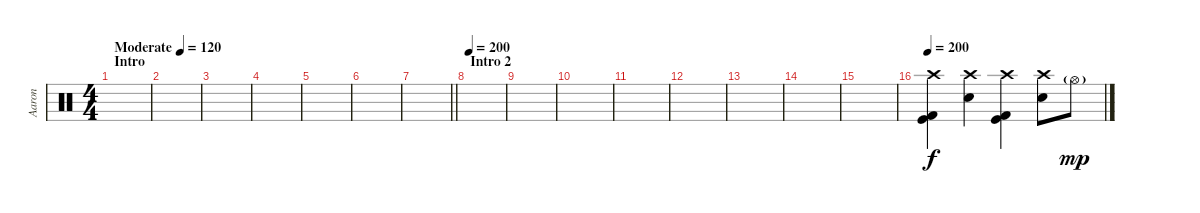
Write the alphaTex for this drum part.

\track ("Aaron" "Aaron") {instrument percussion}
\staff {score}
\articulation defaults
\ts (4 4)
\section ("" "Intro")
\tempo (120 "Moderate")
\clef neutral
\ks c
|
|
|
|
|
|
\barLineRight lightlight
|
\section ("" "Intro 2")
\tempo 200
|
|
|
|
|
|
|
|
\tempo 200
("Crash high (hit)" "Kick (hit)" "Kick (hit) 2").4 ("Crash high (hit)" "Snare (hit) 2").4 ("Crash high (hit)" "Kick (hit)" "Kick (hit) 2").4 ("Crash high (hit)" "Snare (hit) 2").8 "Hi-Hat (open)"{g}.8{dy mp}
